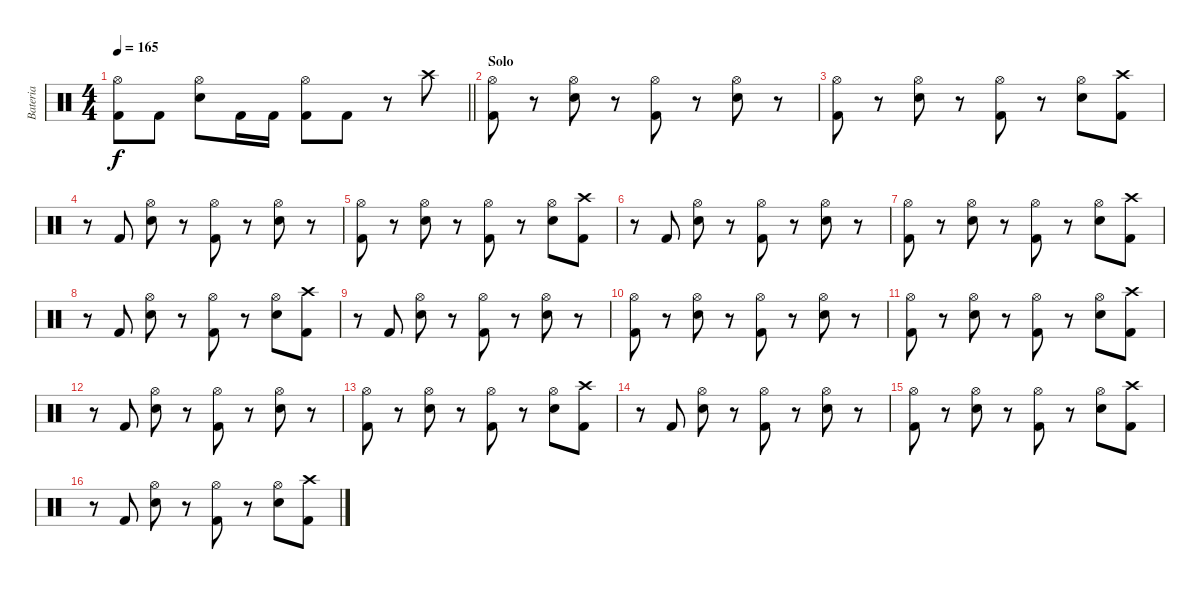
\track ("Bateria" "Bateria") {instrument percussion}
\staff {score}
\articulation defaults
\ts (4 4)
\tempo 165
\clef neutral
\barLineRight lightlight
\ks c
("Hi-Hat (open)" "Kick (hit) 2").8{dy f} "Kick (hit) 2".8 ("Hi-Hat (open)" "Snare (hit) 2").8 "Kick (hit) 2".16 "Kick (hit) 2".16 ("Hi-Hat (open)" "Kick (hit) 2").8 "Kick (hit) 2".8 r.8 "Crash high (hit)".8 |
\section ("" "Solo")
("Hi-Hat (open)" "Kick (hit) 2").8 r.8 ("Hi-Hat (open)" "Snare (hit) 2").8 r.8 ("Hi-Hat (open)" "Kick (hit) 2").8 r.8 ("Hi-Hat (open)" "Snare (hit) 2").8 r.8 |
("Hi-Hat (open)" "Kick (hit) 2").8 r.8 ("Hi-Hat (open)" "Snare (hit) 2").8 r.8 ("Hi-Hat (open)" "Kick (hit) 2").8 r.8 ("Hi-Hat (open)" "Snare (hit) 2").8 ("Crash high (hit)" "Kick (hit) 2").8 |
r.8 "Kick (hit) 2".8 ("Hi-Hat (open)" "Snare (hit) 2").8 r.8 ("Hi-Hat (open)" "Kick (hit) 2").8 r.8 ("Hi-Hat (open)" "Snare (hit) 2").8 r.8 |
("Hi-Hat (open)" "Kick (hit) 2").8 r.8 ("Hi-Hat (open)" "Snare (hit) 2").8 r.8 ("Hi-Hat (open)" "Kick (hit) 2").8 r.8 ("Hi-Hat (open)" "Snare (hit) 2").8 ("Crash high (hit)" "Kick (hit) 2").8 |
r.8 "Kick (hit) 2".8 ("Hi-Hat (open)" "Snare (hit) 2").8 r.8 ("Hi-Hat (open)" "Kick (hit) 2").8 r.8 ("Hi-Hat (open)" "Snare (hit) 2").8 r.8 |
("Hi-Hat (open)" "Kick (hit) 2").8 r.8 ("Hi-Hat (open)" "Snare (hit) 2").8 r.8 ("Hi-Hat (open)" "Kick (hit) 2").8 r.8 ("Hi-Hat (open)" "Snare (hit) 2").8 ("Crash high (hit)" "Kick (hit) 2").8 |
r.8 "Kick (hit) 2".8 ("Hi-Hat (open)" "Snare (hit) 2").8 r.8 ("Hi-Hat (open)" "Kick (hit) 2").8 r.8 ("Hi-Hat (open)" "Snare (hit) 2").8 ("Crash high (hit)" "Kick (hit) 2").8 |
r.8 "Kick (hit) 2".8 ("Hi-Hat (open)" "Snare (hit) 2").8 r.8 ("Hi-Hat (open)" "Kick (hit) 2").8 r.8 ("Hi-Hat (open)" "Snare (hit) 2").8 r.8 |
("Hi-Hat (open)" "Kick (hit) 2").8 r.8 ("Hi-Hat (open)" "Snare (hit) 2").8 r.8 ("Hi-Hat (open)" "Kick (hit) 2").8 r.8 ("Hi-Hat (open)" "Snare (hit) 2").8 r.8 |
("Hi-Hat (open)" "Kick (hit) 2").8 r.8 ("Hi-Hat (open)" "Snare (hit) 2").8 r.8 ("Hi-Hat (open)" "Kick (hit) 2").8 r.8 ("Hi-Hat (open)" "Snare (hit) 2").8 ("Crash high (hit)" "Kick (hit) 2").8 |
r.8 "Kick (hit) 2".8 ("Hi-Hat (open)" "Snare (hit) 2").8 r.8 ("Hi-Hat (open)" "Kick (hit) 2").8 r.8 ("Hi-Hat (open)" "Snare (hit) 2").8 r.8 |
("Hi-Hat (open)" "Kick (hit) 2").8 r.8 ("Hi-Hat (open)" "Snare (hit) 2").8 r.8 ("Hi-Hat (open)" "Kick (hit) 2").8 r.8 ("Hi-Hat (open)" "Snare (hit) 2").8 ("Crash high (hit)" "Kick (hit) 2").8 |
r.8 "Kick (hit) 2".8 ("Hi-Hat (open)" "Snare (hit) 2").8 r.8 ("Hi-Hat (open)" "Kick (hit) 2").8 r.8 ("Hi-Hat (open)" "Snare (hit) 2").8 r.8 |
("Hi-Hat (open)" "Kick (hit) 2").8 r.8 ("Hi-Hat (open)" "Snare (hit) 2").8 r.8 ("Hi-Hat (open)" "Kick (hit) 2").8 r.8 ("Hi-Hat (open)" "Snare (hit) 2").8 ("Crash high (hit)" "Kick (hit) 2").8 |
r.8 "Kick (hit) 2".8 ("Hi-Hat (open)" "Snare (hit) 2").8 r.8 ("Hi-Hat (open)" "Kick (hit) 2").8 r.8 ("Hi-Hat (open)" "Snare (hit) 2").8 ("Crash high (hit)" "Kick (hit) 2").8
